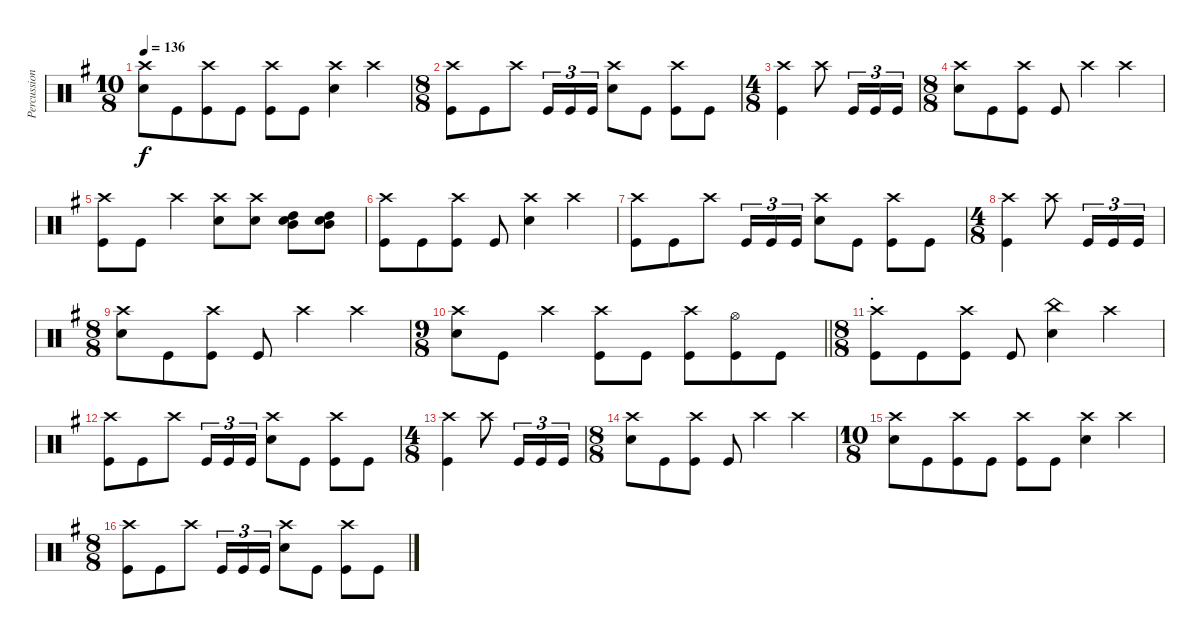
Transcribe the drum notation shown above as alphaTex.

\track ("Percussion" "Percussion") {instrument percussion}
\staff {score}
\articulation defaults
\ts (10 8)
\tempo 136
\clef neutral
\ks g
("Crash high (hit)" "Electric Snare (hit)").8{dy f} "Kick (hit)".8 ("Crash high (hit)" "Kick (hit)").8 "Kick (hit)".8 ("Crash high (hit)" "Kick (hit)").8 "Kick (hit)".8 ("Crash high (hit)" "Electric Snare (hit)").4 "Crash high (hit)".4 |
\ts (8 8)
("Crash high (hit)" "Kick (hit)").8 "Kick (hit)".8 "Crash high (hit)".8 "Kick (hit)".16{tu (3 2)} "Kick (hit)".16{tu (3 2)} "Kick (hit)".16{tu (3 2)} ("Crash high (hit)" "Electric Snare (hit)").8 "Kick (hit)".8 ("Crash high (hit)" "Kick (hit)").8 "Kick (hit)".8 |
\ts (4 8)
("Crash high (hit)" "Kick (hit)").4 "Crash high (hit)".8 "Kick (hit)".16{tu (3 2)} "Kick (hit)".16{tu (3 2)} "Kick (hit)".16{tu (3 2)} |
\ts (8 8)
("Crash high (hit)" "Electric Snare (hit)").8 "Kick (hit)".8 ("Crash high (hit)" "Kick (hit)").8 "Kick (hit)".8 "Crash high (hit)".4 "Crash high (hit)".4 |
("Crash high (hit)" "Kick (hit)").8 "Kick (hit)".8 "Crash high (hit)".4 ("Crash high (hit)" "Electric Snare (hit)").8 ("Crash high (hit)" "Electric Snare (hit)").8 ("Mid Tom (hit)" "High Tom (hit)" "Electric Snare (hit)").8 ("Mid Tom (hit)" "High Tom (hit)" "Electric Snare (hit)").8 |
("Crash high (hit)" "Kick (hit)").8 "Kick (hit)".8 ("Crash high (hit)" "Kick (hit)").8 "Kick (hit)".8 ("Crash high (hit)" "Electric Snare (hit)").4 "Crash high (hit)".4 |
("Crash high (hit)" "Kick (hit)").8 "Kick (hit)".8 "Crash high (hit)".8 "Kick (hit)".16{tu (3 2)} "Kick (hit)".16{tu (3 2)} "Kick (hit)".16{tu (3 2)} ("Crash high (hit)" "Electric Snare (hit)").8 "Kick (hit)".8 ("Crash high (hit)" "Kick (hit)").8 "Kick (hit)".8 |
\ts (4 8)
("Crash high (hit)" "Kick (hit)").4 "Crash high (hit)".8 "Kick (hit)".16{tu (3 2)} "Kick (hit)".16{tu (3 2)} "Kick (hit)".16{tu (3 2)} |
\ts (8 8)
("Crash high (hit)" "Electric Snare (hit)").8 "Kick (hit)".8 ("Crash high (hit)" "Kick (hit)").8 "Kick (hit)".8 "Crash high (hit)".4 "Crash high (hit)".4 |
\ts (9 8)
\barLineRight lightlight
("Crash high (hit)" "Electric Snare (hit)").8 "Kick (hit)".8 "Crash high (hit)".4 ("Crash high (hit)" "Kick (hit)").8 "Kick (hit)".8 ("Crash high (hit)" "Kick (hit)").8 ("Hi-Hat (open)" "Kick (hit)").8 "Kick (hit)".8 |
\ts (8 8)
\section ("" ".")
("Crash high (hit)" "Kick (hit)").8 "Kick (hit)".8 ("Crash high (hit)" "Kick (hit)").8 "Kick (hit)".8 ("China (hit)" "Electric Snare (hit)").4 "Crash high (hit)".4 |
("Crash high (hit)" "Kick (hit)").8 "Kick (hit)".8 "Crash high (hit)".8 "Kick (hit)".16{tu (3 2)} "Kick (hit)".16{tu (3 2)} "Kick (hit)".16{tu (3 2)} ("Crash high (hit)" "Electric Snare (hit)").8 "Kick (hit)".8 ("Crash high (hit)" "Kick (hit)").8 "Kick (hit)".8 |
\ts (4 8)
("Crash high (hit)" "Kick (hit)").4 "Crash high (hit)".8 "Kick (hit)".16{tu (3 2)} "Kick (hit)".16{tu (3 2)} "Kick (hit)".16{tu (3 2)} |
\ts (8 8)
("Crash high (hit)" "Electric Snare (hit)").8 "Kick (hit)".8 ("Crash high (hit)" "Kick (hit)").8 "Kick (hit)".8 "Crash high (hit)".4 "Crash high (hit)".4 |
\ts (10 8)
("Crash high (hit)" "Electric Snare (hit)").8 "Kick (hit)".8 ("Crash high (hit)" "Kick (hit)").8 "Kick (hit)".8 ("Crash high (hit)" "Kick (hit)").8 "Kick (hit)".8 ("Crash high (hit)" "Electric Snare (hit)").4 "Crash high (hit)".4 |
\ts (8 8)
("Crash high (hit)" "Kick (hit)").8 "Kick (hit)".8 "Crash high (hit)".8 "Kick (hit)".16{tu (3 2)} "Kick (hit)".16{tu (3 2)} "Kick (hit)".16{tu (3 2)} ("Crash high (hit)" "Electric Snare (hit)").8 "Kick (hit)".8 ("Crash high (hit)" "Kick (hit)").8 "Kick (hit)".8
